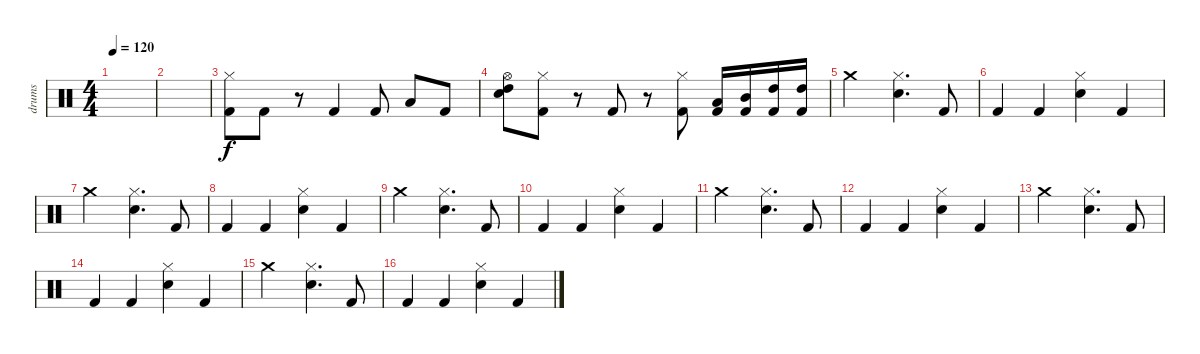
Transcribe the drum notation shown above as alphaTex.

\track ("drums" "drums") {instrument percussion}
\staff {score}
\articulation defaults
\ts (4 4)
\tempo 120
\clef neutral
\ks c
|
|
("Hi-Hat (closed)" "Kick (hit) 2").8 "Kick (hit) 2".8 r.8 "Kick (hit) 2".4 "Kick (hit) 2".8 "Low Tom (hit)".8 "Kick (hit) 2".8 |
("Hi-Hat (open)" "High Tom (hit)" "Snare (hit) 2").8 ("Hi-Hat (closed)" "Kick (hit) 2").8 r.8 "Kick (hit) 2".8 r.8 ("Hi-Hat (closed)" "Kick (hit) 2").8 ("Low Tom (hit)" "Kick (hit) 2").16 ("Mid Tom (hit)" "Kick (hit) 2").16 ("High Tom (hit)" "Kick (hit) 2").16 ("High Tom (hit)" "Kick (hit) 2").16 |
"Crash medium (hit)".2 ("Snare (hit) 2" "Hi-Hat (closed)").4{d} "Kick (hit) 2".8 |
"Kick (hit) 2".4 "Kick (hit) 2".4 ("Snare (hit) 2" "Hi-Hat (closed)").4 "Kick (hit) 2".4 |
"Crash medium (hit)".2 ("Snare (hit) 2" "Hi-Hat (closed)").4{d} "Kick (hit) 2".8 |
"Kick (hit) 2".4 "Kick (hit) 2".4 ("Snare (hit) 2" "Hi-Hat (closed)").4 "Kick (hit) 2".4 |
"Crash medium (hit)".2 ("Snare (hit) 2" "Hi-Hat (closed)").4{d} "Kick (hit) 2".8 |
"Kick (hit) 2".4 "Kick (hit) 2".4 ("Snare (hit) 2" "Hi-Hat (closed)").4 "Kick (hit) 2".4 |
"Crash medium (hit)".2 ("Snare (hit) 2" "Hi-Hat (closed)").4{d} "Kick (hit) 2".8 |
"Kick (hit) 2".4 "Kick (hit) 2".4 ("Snare (hit) 2" "Hi-Hat (closed)").4 "Kick (hit) 2".4 |
"Crash medium (hit)".2 ("Snare (hit) 2" "Hi-Hat (closed)").4{d} "Kick (hit) 2".8 |
"Kick (hit) 2".4 "Kick (hit) 2".4 ("Snare (hit) 2" "Hi-Hat (closed)").4 "Kick (hit) 2".4 |
"Crash medium (hit)".2 ("Snare (hit) 2" "Hi-Hat (closed)").4{d} "Kick (hit) 2".8 |
"Kick (hit) 2".4 "Kick (hit) 2".4 ("Snare (hit) 2" "Hi-Hat (closed)").4 "Kick (hit) 2".4
